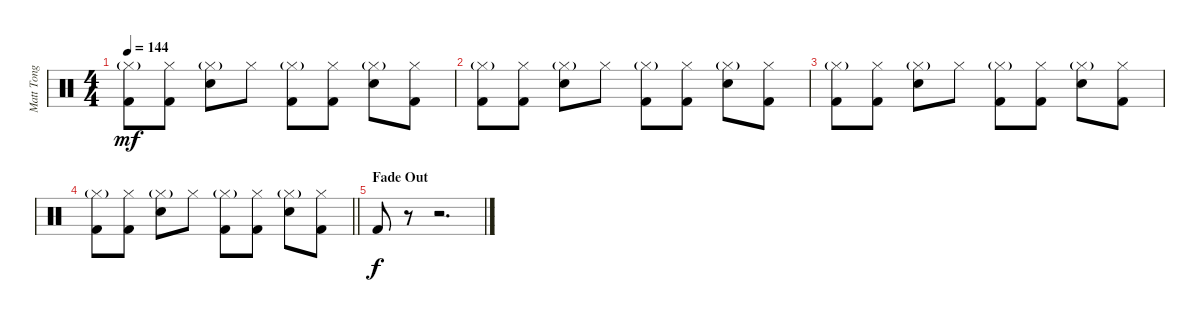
\track ("Matt Tong" "Matt Tong") {instrument percussion}
\staff {score}
\articulation defaults
\ts (4 4)
\tempo 144
\clef neutral
\ks c
("Hi-Hat (closed)"{g} "Kick (hit) 2").8{dy mf} ("Hi-Hat (closed)" "Kick (hit) 2").8 ("Hi-Hat (closed)"{g} "Electric Snare (hit)").8 "Hi-Hat (closed)".8 ("Hi-Hat (closed)"{g} "Kick (hit) 2").8 ("Hi-Hat (closed)" "Kick (hit) 2").8 ("Hi-Hat (closed)"{g} "Electric Snare (hit)").8 ("Hi-Hat (closed)" "Kick (hit) 2").8 |
("Hi-Hat (closed)"{g} "Kick (hit) 2").8 ("Hi-Hat (closed)" "Kick (hit) 2").8 ("Hi-Hat (closed)"{g} "Electric Snare (hit)").8 "Hi-Hat (closed)".8 ("Hi-Hat (closed)"{g} "Kick (hit) 2").8 ("Hi-Hat (closed)" "Kick (hit) 2").8 ("Hi-Hat (closed)"{g} "Electric Snare (hit)").8 ("Hi-Hat (closed)" "Kick (hit) 2").8 |
("Hi-Hat (closed)"{g} "Kick (hit) 2").8 ("Hi-Hat (closed)" "Kick (hit) 2").8 ("Hi-Hat (closed)"{g} "Electric Snare (hit)").8 "Hi-Hat (closed)".8 ("Hi-Hat (closed)"{g} "Kick (hit) 2").8 ("Hi-Hat (closed)" "Kick (hit) 2").8 ("Hi-Hat (closed)"{g} "Electric Snare (hit)").8 ("Hi-Hat (closed)" "Kick (hit) 2").8 |
\barLineRight lightlight
("Hi-Hat (closed)"{g} "Kick (hit) 2").8 ("Hi-Hat (closed)" "Kick (hit) 2").8 ("Hi-Hat (closed)"{g} "Electric Snare (hit)").8 "Hi-Hat (closed)".8 ("Hi-Hat (closed)"{g} "Kick (hit) 2").8 ("Hi-Hat (closed)" "Kick (hit) 2").8 ("Hi-Hat (closed)"{g} "Electric Snare (hit)").8 ("Hi-Hat (closed)" "Kick (hit) 2").8 |
\section ("" "Fade Out")
"Kick (hit) 2".8{dy f} r.8 r.2{d}
